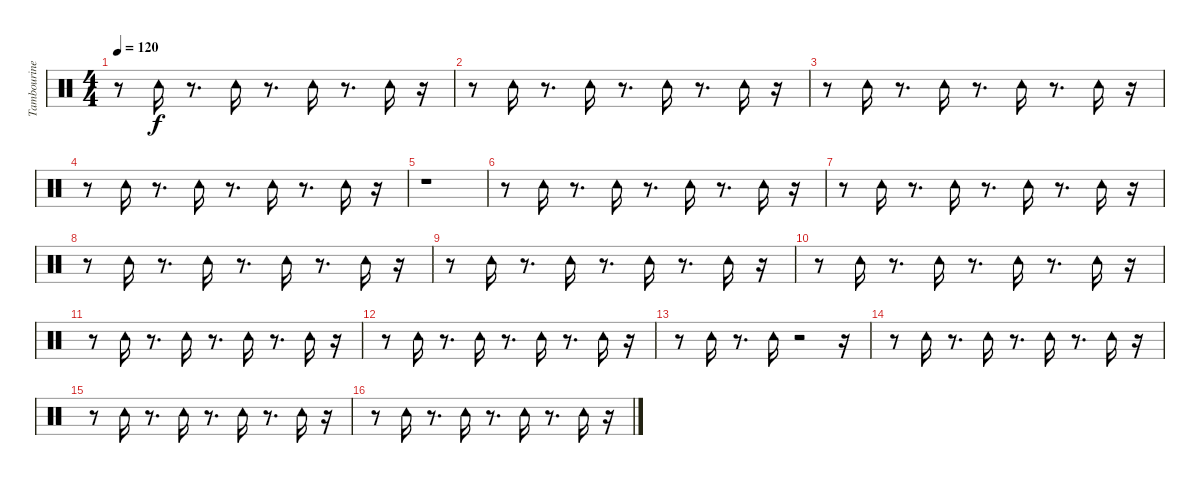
\track ("Tambourine" "Tambourine") {instrument percussion}
\staff {score}
\articulation defaults
\ts (4 4)
\tempo 120
\clef neutral
\ks c
r.8{dy f} "Tambourine (hit)".16 r.8{d} "Tambourine (hit)".16 r.8{d} "Tambourine (hit)".16 r.8{d} "Tambourine (hit)".16 r.16 |
r.8 "Tambourine (hit)".16 r.8{d} "Tambourine (hit)".16 r.8{d} "Tambourine (hit)".16 r.8{d} "Tambourine (hit)".16 r.16 |
r.8 "Tambourine (hit)".16 r.8{d} "Tambourine (hit)".16 r.8{d} "Tambourine (hit)".16 r.8{d} "Tambourine (hit)".16 r.16 |
r.8 "Tambourine (hit)".16 r.8{d} "Tambourine (hit)".16 r.8{d} "Tambourine (hit)".16 r.8{d} "Tambourine (hit)".16 r.16 |
r.1 |
r.8 "Tambourine (hit)".16 r.8{d} "Tambourine (hit)".16 r.8{d} "Tambourine (hit)".16 r.8{d} "Tambourine (hit)".16 r.16 |
r.8 "Tambourine (hit)".16 r.8{d} "Tambourine (hit)".16 r.8{d} "Tambourine (hit)".16 r.8{d} "Tambourine (hit)".16 r.16 |
r.8 "Tambourine (hit)".16 r.8{d} "Tambourine (hit)".16 r.8{d} "Tambourine (hit)".16 r.8{d} "Tambourine (hit)".16 r.16 |
r.8 "Tambourine (hit)".16 r.8{d} "Tambourine (hit)".16 r.8{d} "Tambourine (hit)".16 r.8{d} "Tambourine (hit)".16 r.16 |
r.8 "Tambourine (hit)".16 r.8{d} "Tambourine (hit)".16 r.8{d} "Tambourine (hit)".16 r.8{d} "Tambourine (hit)".16 r.16 |
r.8 "Tambourine (hit)".16 r.8{d} "Tambourine (hit)".16 r.8{d} "Tambourine (hit)".16 r.8{d} "Tambourine (hit)".16 r.16 |
r.8 "Tambourine (hit)".16 r.8{d} "Tambourine (hit)".16 r.8{d} "Tambourine (hit)".16 r.8{d} "Tambourine (hit)".16 r.16 |
r.8 "Tambourine (hit)".16 r.8{d} "Tambourine (hit)".16 r.2 r.16 |
r.8 "Tambourine (hit)".16 r.8{d} "Tambourine (hit)".16 r.8{d} "Tambourine (hit)".16 r.8{d} "Tambourine (hit)".16 r.16 |
r.8 "Tambourine (hit)".16 r.8{d} "Tambourine (hit)".16 r.8{d} "Tambourine (hit)".16 r.8{d} "Tambourine (hit)".16 r.16 |
r.8 "Tambourine (hit)".16 r.8{d} "Tambourine (hit)".16 r.8{d} "Tambourine (hit)".16 r.8{d} "Tambourine (hit)".16 r.16
